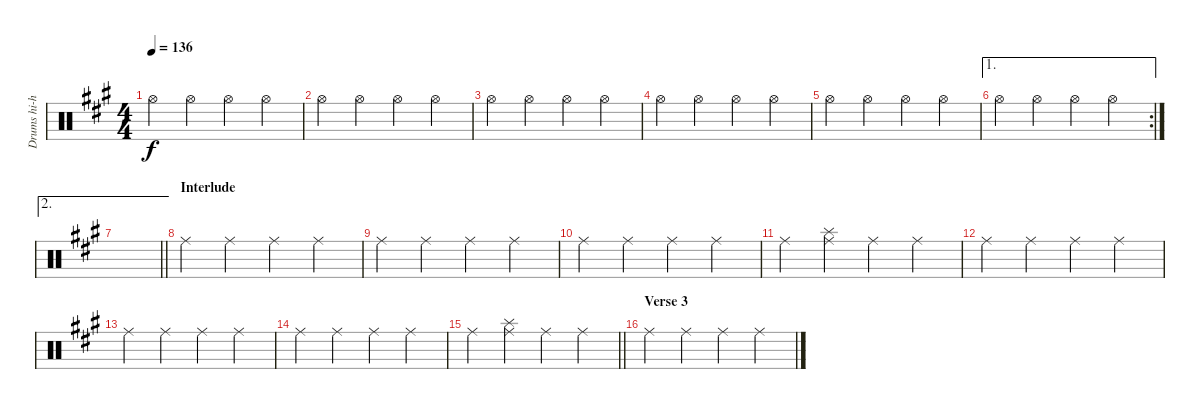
\track ("Drums hi-hat" "Drums hi-h") {instrument percussion}
\staff {score}
\articulation defaults
\ts (4 4)
\tempo 136
\clef neutral
\ks a "Hi-Hat (open)".4{dy f} "Hi-Hat (open)".4 "Hi-Hat (open)".4 "Hi-Hat (open)".4
|
"Hi-Hat (open)".4 "Hi-Hat (open)".4 "Hi-Hat (open)".4 "Hi-Hat (open)".4 |
"Hi-Hat (open)".4 "Hi-Hat (open)".4 "Hi-Hat (open)".4 "Hi-Hat (open)".4 |
"Hi-Hat (open)".4 "Hi-Hat (open)".4 "Hi-Hat (open)".4 "Hi-Hat (open)".4 |
"Hi-Hat (open)".4 "Hi-Hat (open)".4 "Hi-Hat (open)".4 "Hi-Hat (open)".4 |
\ae 1
\rc 2 "Hi-Hat (open)".4 "Hi-Hat (open)".4 "Hi-Hat (open)".4 "Hi-Hat (open)".4
|
\ae 2
\barLineRight lightlight
|
\section ("" "Interlude")
"Ride (middle)".4 "Ride (middle)".4 "Ride (middle)".4 "Ride (middle)".4 |
"Ride (middle)".4 "Ride (middle)".4 "Ride (middle)".4 "Ride (middle)".4 |
"Ride (middle)".4 "Ride (middle)".4 "Ride (middle)".4 "Ride (middle)".4 |
"Ride (middle)".4 ("Splash (hit)" "Ride (middle)").4 "Ride (middle)".4 "Ride (middle)".4 |
"Ride (middle)".4 "Ride (middle)".4 "Ride (middle)".4 "Ride (middle)".4 |
"Ride (middle)".4 "Ride (middle)".4 "Ride (middle)".4 "Ride (middle)".4 |
"Ride (middle)".4 "Ride (middle)".4 "Ride (middle)".4 "Ride (middle)".4 |
\barLineRight lightlight "Ride (middle)".4
("Splash (hit)" "Ride (middle)").4 "Ride (middle)".4 "Ride (middle)".4 |
\section ("" "Verse 3")
"Ride (middle)".4 "Ride (middle)".4 "Ride (middle)".4 "Ride (middle)".4
